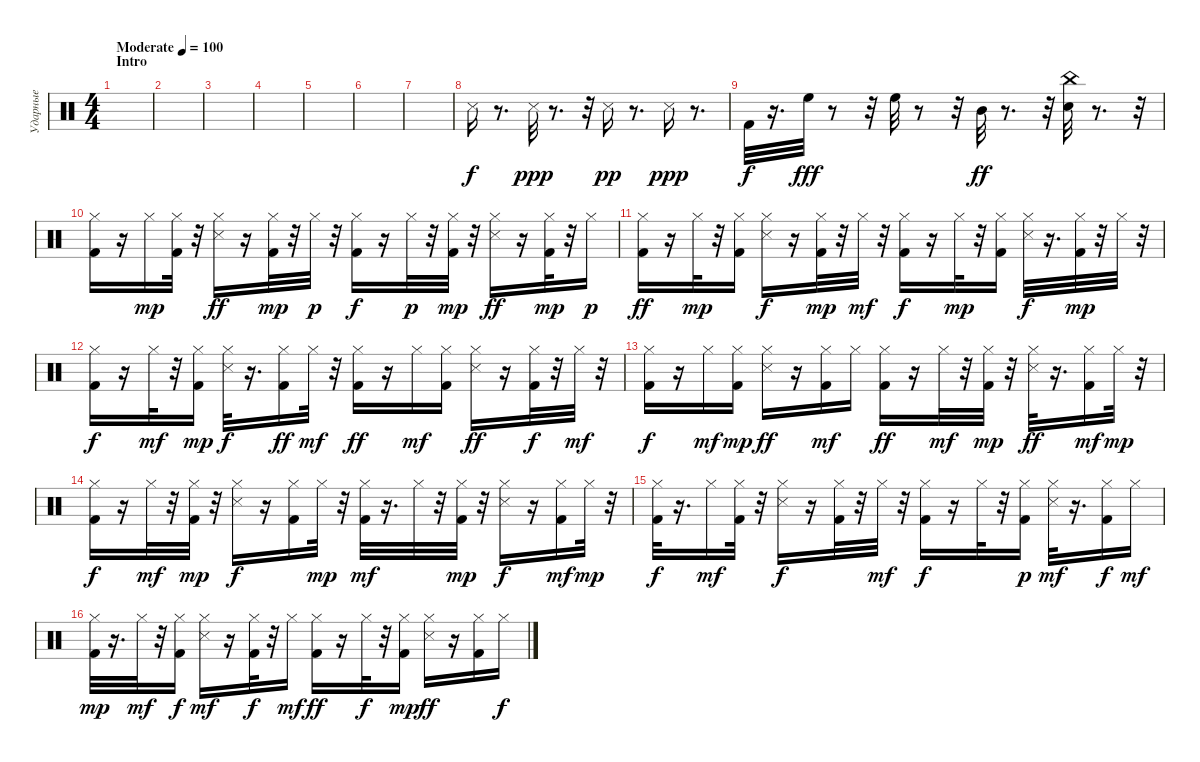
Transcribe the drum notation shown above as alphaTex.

\track ("Ударные" "Ударные") {instrument percussion}
\staff {score}
\articulation defaults
\ts (4 4)
\section ("" "Intro")
\tempo (100 "Moderate")
\clef neutral
\ks c
|
|
|
|
|
|
|
"Snare (side stick) 3".16 r.8{d} "Snare (side stick) 3".32{dy ppp} r.8{d} r.32 "Snare (side stick) 3".16{dy pp} r.8{d} "Snare (side stick) 3".16{dy ppp} r.8{d} |
"Kick (hit) 2".32{dy f} r.16{d} "High Floor Tom (hit)".32{dy fff} r.8 r.32 "High Floor Tom (hit)".32 r.8 r.32 "Mid Tom (hit)".32{dy ff} r.8{d} r.32 ("China (hit)" "Snare (hit) 2").32 r.8{d} r.32 |
("Kick (hit) 2" "Hi-Hat (closed)").16 r.16 "Hi-Hat (closed)".16{dy mp} ("Kick (hit) 2" "Hi-Hat (closed)").32 r.32 ("Hi-Hat (closed)" "Snare (side stick) 3").16{dy ff} r.16 ("Hi-Hat (closed)" "Kick (hit) 2").32{dy mp} r.32 "Hi-Hat (closed)".32{dy p} r.32 ("Kick (hit) 2" "Hi-Hat (closed)").16{dy f} r.16 "Hi-Hat (closed)".32{dy p} r.32 ("Kick (hit) 2" "Hi-Hat (closed)").32{dy mp} r.32 ("Hi-Hat (closed)" "Snare (side stick) 3").16{dy ff} r.16 ("Kick (hit) 2" "Hi-Hat (closed)").32{dy mp} r.32 "Hi-Hat (closed)".16{dy p} |
("Kick (hit) 2" "Hi-Hat (closed)").16{dy ff} r.16 "Hi-Hat (closed)".32{dy mp} r.32 ("Kick (hit) 2" "Hi-Hat (closed)").16 ("Hi-Hat (closed)" "Snare (side stick) 3").16{dy f} r.16 ("Kick (hit) 2" "Hi-Hat (closed)").32{dy mp} r.32 "Hi-Hat (closed)".32{dy mf} r.32 ("Kick (hit) 2" "Hi-Hat (closed)").16{dy f} r.16 "Hi-Hat (closed)".32{dy mp} r.32 ("Hi-Hat (closed)" "Kick (hit) 2").16 ("Hi-Hat (closed)" "Snare (side stick) 3").32{dy f} r.16{d} ("Kick (hit) 2" "Hi-Hat (closed)").32{dy mp} r.32 "Hi-Hat (closed)".32 r.32 |
("Hi-Hat (closed)" "Kick (hit) 2").16{dy f} r.16 "Hi-Hat (closed)".32{dy mf} r.32 ("Hi-Hat (closed)" "Kick (hit) 2").16{dy mp} ("Hi-Hat (closed)" "Snare (side stick) 3").32{dy f} r.16{d} ("Hi-Hat (closed)" "Kick (hit) 2").16{dy ff} "Hi-Hat (closed)".32{dy mf} r.32 ("Hi-Hat (closed)" "Kick (hit) 2").16{dy ff} r.16 "Hi-Hat (closed)".16{dy mf} ("Kick (hit) 2" "Hi-Hat (closed)").16 ("Hi-Hat (closed)" "Snare (side stick) 3").16{dy ff} r.16 ("Hi-Hat (closed)" "Kick (hit) 2").32{dy f} r.32 "Hi-Hat (closed)".32{dy mf} r.32 |
("Hi-Hat (closed)" "Kick (hit) 2").16{dy f} r.16 "Hi-Hat (closed)".16{dy mf} ("Kick (hit) 2" "Hi-Hat (closed)").16{dy mp} ("Hi-Hat (closed)" "Snare (side stick) 3").16{dy ff} r.16 ("Kick (hit) 2" "Hi-Hat (closed)").16{dy mf} "Hi-Hat (closed)".16 ("Kick (hit) 2" "Hi-Hat (closed)").16{dy ff} r.16 "Hi-Hat (closed)".32{dy mf} r.32 ("Kick (hit) 2" "Hi-Hat (closed)").32{dy mp} r.32 ("Snare (side stick) 3" "Hi-Hat (closed)").32{dy ff} r.16{d} ("Hi-Hat (closed)" "Kick (hit) 2").16{dy mf} "Hi-Hat (closed)".32{dy mp} r.32 |
("Kick (hit) 2" "Hi-Hat (closed)").16{dy f} r.16 "Hi-Hat (closed)".32{dy mf} r.32 ("Hi-Hat (closed)" "Kick (hit) 2").32{dy mp} r.32 ("Hi-Hat (closed)" "Snare (side stick) 3").16{dy f} r.16 ("Hi-Hat (closed)" "Kick (hit) 2").16 "Hi-Hat (closed)".32{dy mp} r.32 ("Kick (hit) 2" "Hi-Hat (closed)").32{dy mf} r.16{d} "Hi-Hat (closed)".32 r.32 ("Kick (hit) 2" "Hi-Hat (closed)").32{dy mp} r.32 ("Hi-Hat (closed)" "Snare (side stick) 3").16{dy f} r.16 ("Kick (hit) 2" "Hi-Hat (closed)").16{dy mf} "Hi-Hat (closed)".32{dy mp} r.32 |
("Hi-Hat (closed)" "Kick (hit) 2").32{dy f} r.16{d} "Hi-Hat (closed)".16{dy mf} ("Kick (hit) 2" "Hi-Hat (closed)").32 r.32 ("Hi-Hat (closed)" "Snare (side stick) 3").16{dy f} r.16 ("Kick (hit) 2" "Hi-Hat (closed)").32 r.32 "Hi-Hat (closed)".32{dy mf} r.32 ("Hi-Hat (closed)" "Kick (hit) 2").16{dy f} r.16 "Hi-Hat (closed)".32 r.32 ("Kick (hit) 2" "Hi-Hat (closed)").16{dy p} ("Hi-Hat (closed)" "Snare (side stick) 3").32{dy mf} r.16{d} ("Kick (hit) 2" "Hi-Hat (closed)").16{dy f} "Hi-Hat (closed)".16{dy mf} |
("Hi-Hat (closed)" "Kick (hit) 2").32{dy mp} r.16{d} "Hi-Hat (closed)".32{dy mf} r.32 ("Hi-Hat (closed)" "Kick (hit) 2").16{dy f} ("Hi-Hat (closed)" "Snare (side stick) 3").16{dy mf} r.16 ("Hi-Hat (closed)" "Kick (hit) 2").32{dy f} r.32 "Hi-Hat (closed)".16{dy mf} ("Hi-Hat (closed)" "Kick (hit) 2").16{dy ff} r.16 "Hi-Hat (closed)".32{dy f} r.32 ("Hi-Hat (closed)" "Kick (hit) 2").16{dy mp} ("Hi-Hat (closed)" "Snare (side stick) 3").16{dy ff} r.16 ("Kick (hit) 2" "Hi-Hat (closed)").16 "Hi-Hat (closed)".16{dy f}
